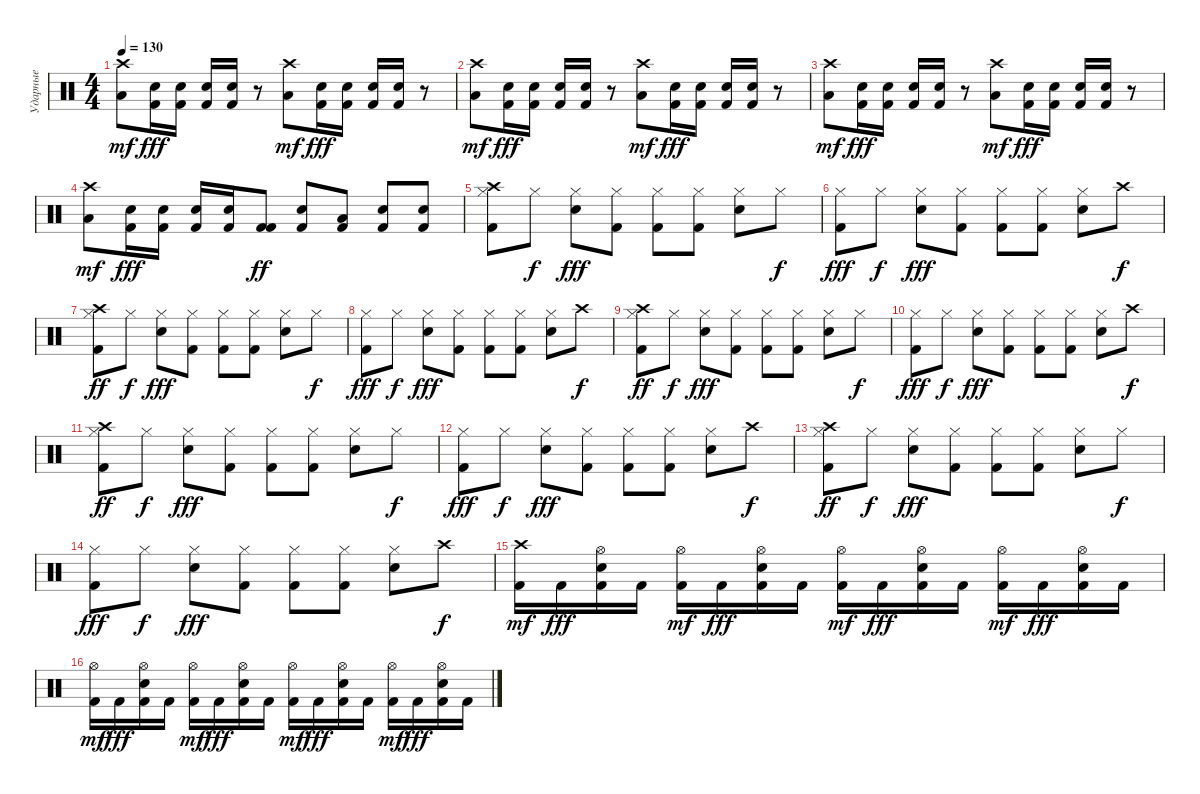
\track ("Ударные" "Ударные") {instrument percussion}
\staff {score}
\articulation defaults
\ts (4 4)
\tempo 130
\clef neutral
\ks c
("Low Floor Tom (hit)" "Crash high (hit)").8{dy mf} ("Kick (hit) 2" "Snare (hit) 2").16{dy fff} ("Kick (hit) 2" "Snare (hit) 2").16 ("Kick (hit) 2" "Snare (hit) 2").16 ("Kick (hit) 2" "Snare (hit) 2").16 r.8 ("Low Floor Tom (hit)" "Crash high (hit)").8{dy mf} ("Kick (hit) 2" "Snare (hit) 2").16{dy fff} ("Kick (hit) 2" "Snare (hit) 2").16 ("Kick (hit) 2" "Snare (hit) 2").16 ("Kick (hit) 2" "Snare (hit) 2").16 r.8 |
("Low Floor Tom (hit)" "Crash high (hit)").8{dy mf} ("Kick (hit) 2" "Snare (hit) 2").16{dy fff} ("Kick (hit) 2" "Snare (hit) 2").16 ("Kick (hit) 2" "Snare (hit) 2").16 ("Kick (hit) 2" "Snare (hit) 2").16 r.8 ("Low Floor Tom (hit)" "Crash high (hit)").8{dy mf} ("Kick (hit) 2" "Snare (hit) 2").16{dy fff} ("Kick (hit) 2" "Snare (hit) 2").16 ("Kick (hit) 2" "Snare (hit) 2").16 ("Kick (hit) 2" "Snare (hit) 2").16 r.8 |
("Low Floor Tom (hit)" "Crash high (hit)").8{dy mf} ("Kick (hit) 2" "Snare (hit) 2").16{dy fff} ("Kick (hit) 2" "Snare (hit) 2").16 ("Kick (hit) 2" "Snare (hit) 2").16 ("Kick (hit) 2" "Snare (hit) 2").16 r.8 ("Low Floor Tom (hit)" "Crash high (hit)").8{dy mf} ("Kick (hit) 2" "Snare (hit) 2").16{dy fff} ("Kick (hit) 2" "Snare (hit) 2").16 ("Kick (hit) 2" "Snare (hit) 2").16 ("Kick (hit) 2" "Snare (hit) 2").16 r.8 |
("Low Floor Tom (hit)" "Crash high (hit)").8{dy mf} ("Kick (hit) 2" "Snare (hit) 2").16{dy fff} ("Kick (hit) 2" "Snare (hit) 2").16 ("Kick (hit) 2" "Snare (hit) 2").16 ("Kick (hit) 2" "Snare (hit) 2").16 ("Kick (hit) 2" "Kick (hit) 2").8{dy ff} ("Snare (hit) 2" "Kick (hit) 2").8 ("Low Floor Tom (hit)" "Kick (hit) 2").8 ("Snare (hit) 2" "Kick (hit) 2").8 ("Snare (hit) 2" "Kick (hit) 2").8 |
("Hi-Hat (closed)" "Kick (hit) 2" "Crash high (hit)").8 "Hi-Hat (closed)".8{dy f} ("Hi-Hat (closed)" "Snare (hit) 2").8{dy fff} ("Hi-Hat (closed)" "Kick (hit) 2").8 ("Hi-Hat (closed)" "Kick (hit) 2").8 ("Hi-Hat (closed)" "Kick (hit) 2").8 ("Hi-Hat (closed)" "Snare (hit) 2").8 "Hi-Hat (closed)".8{dy f} |
("Hi-Hat (closed)" "Kick (hit) 2").8{dy fff} "Hi-Hat (closed)".8{dy f} ("Hi-Hat (closed)" "Snare (hit) 2").8{dy fff} ("Hi-Hat (closed)" "Kick (hit) 2").8 ("Hi-Hat (closed)" "Kick (hit) 2").8 ("Hi-Hat (closed)" "Kick (hit) 2").8 ("Hi-Hat (closed)" "Snare (hit) 2").8 "Crash high (hit)".8{dy f} |
("Hi-Hat (closed)" "Kick (hit) 2" "Crash high (hit)").8{dy ff} "Hi-Hat (closed)".8{dy f} ("Hi-Hat (closed)" "Snare (hit) 2").8{dy fff} ("Hi-Hat (closed)" "Kick (hit) 2").8 ("Hi-Hat (closed)" "Kick (hit) 2").8 ("Hi-Hat (closed)" "Kick (hit) 2").8 ("Hi-Hat (closed)" "Snare (hit) 2").8 "Hi-Hat (closed)".8{dy f} |
("Hi-Hat (closed)" "Kick (hit) 2").8{dy fff} "Hi-Hat (closed)".8{dy f} ("Hi-Hat (closed)" "Snare (hit) 2").8{dy fff} ("Hi-Hat (closed)" "Kick (hit) 2").8 ("Hi-Hat (closed)" "Kick (hit) 2").8 ("Hi-Hat (closed)" "Kick (hit) 2").8 ("Hi-Hat (closed)" "Snare (hit) 2").8 "Crash high (hit)".8{dy f} |
("Hi-Hat (closed)" "Kick (hit) 2" "Crash high (hit)").8{dy ff} "Hi-Hat (closed)".8{dy f} ("Hi-Hat (closed)" "Snare (hit) 2").8{dy fff} ("Hi-Hat (closed)" "Kick (hit) 2").8 ("Hi-Hat (closed)" "Kick (hit) 2").8 ("Hi-Hat (closed)" "Kick (hit) 2").8 ("Hi-Hat (closed)" "Snare (hit) 2").8 "Hi-Hat (closed)".8{dy f} |
("Hi-Hat (closed)" "Kick (hit) 2").8{dy fff} "Hi-Hat (closed)".8{dy f} ("Hi-Hat (closed)" "Snare (hit) 2").8{dy fff} ("Hi-Hat (closed)" "Kick (hit) 2").8 ("Hi-Hat (closed)" "Kick (hit) 2").8 ("Hi-Hat (closed)" "Kick (hit) 2").8 ("Hi-Hat (closed)" "Snare (hit) 2").8 "Crash high (hit)".8{dy f} |
("Hi-Hat (closed)" "Kick (hit) 2" "Crash high (hit)").8{dy ff} "Hi-Hat (closed)".8{dy f} ("Hi-Hat (closed)" "Snare (hit) 2").8{dy fff} ("Hi-Hat (closed)" "Kick (hit) 2").8 ("Hi-Hat (closed)" "Kick (hit) 2").8 ("Hi-Hat (closed)" "Kick (hit) 2").8 ("Hi-Hat (closed)" "Snare (hit) 2").8 "Hi-Hat (closed)".8{dy f} |
("Hi-Hat (closed)" "Kick (hit) 2").8{dy fff} "Hi-Hat (closed)".8{dy f} ("Hi-Hat (closed)" "Snare (hit) 2").8{dy fff} ("Hi-Hat (closed)" "Kick (hit) 2").8 ("Hi-Hat (closed)" "Kick (hit) 2").8 ("Hi-Hat (closed)" "Kick (hit) 2").8 ("Hi-Hat (closed)" "Snare (hit) 2").8 "Crash high (hit)".8{dy f} |
("Hi-Hat (closed)" "Kick (hit) 2" "Crash high (hit)").8{dy ff} "Hi-Hat (closed)".8{dy f} ("Hi-Hat (closed)" "Snare (hit) 2").8{dy fff} ("Hi-Hat (closed)" "Kick (hit) 2").8 ("Hi-Hat (closed)" "Kick (hit) 2").8 ("Hi-Hat (closed)" "Kick (hit) 2").8 ("Hi-Hat (closed)" "Snare (hit) 2").8 "Hi-Hat (closed)".8{dy f} |
("Hi-Hat (closed)" "Kick (hit) 2").8{dy fff} "Hi-Hat (closed)".8{dy f} ("Hi-Hat (closed)" "Snare (hit) 2").8{dy fff} ("Hi-Hat (closed)" "Kick (hit) 2").8 ("Hi-Hat (closed)" "Kick (hit) 2").8 ("Hi-Hat (closed)" "Kick (hit) 2").8 ("Hi-Hat (closed)" "Snare (hit) 2").8 "Crash high (hit)".8{dy f} |
("Kick (hit) 2" "Crash high (hit)").16{dy mf} "Kick (hit) 2".16{dy fff} ("Kick (hit) 2" "Hi-Hat (open)" "Snare (hit) 2").16 "Kick (hit) 2".16 ("Kick (hit) 2" "Hi-Hat (open)").16{dy mf} "Kick (hit) 2".16{dy fff} ("Kick (hit) 2" "Hi-Hat (open)" "Snare (hit) 2").16 "Kick (hit) 2".16 ("Kick (hit) 2" "Hi-Hat (open)").16{dy mf} "Kick (hit) 2".16{dy fff} ("Kick (hit) 2" "Hi-Hat (open)" "Snare (hit) 2").16 "Kick (hit) 2".16 ("Kick (hit) 2" "Hi-Hat (open)").16{dy mf} "Kick (hit) 2".16{dy fff} ("Kick (hit) 2" "Hi-Hat (open)" "Snare (hit) 2").16 "Kick (hit) 2".16 |
("Kick (hit) 2" "Hi-Hat (open)").16{dy mf} "Kick (hit) 2".16{dy fff} ("Kick (hit) 2" "Hi-Hat (open)" "Snare (hit) 2").16 "Kick (hit) 2".16 ("Kick (hit) 2" "Hi-Hat (open)").16{dy mf} "Kick (hit) 2".16{dy fff} ("Kick (hit) 2" "Hi-Hat (open)" "Snare (hit) 2").16 "Kick (hit) 2".16 ("Kick (hit) 2" "Hi-Hat (open)").16{dy mf} "Kick (hit) 2".16{dy fff} ("Kick (hit) 2" "Hi-Hat (open)" "Snare (hit) 2").16 "Kick (hit) 2".16 ("Kick (hit) 2" "Hi-Hat (open)").16{dy mf} "Kick (hit) 2".16{dy fff} ("Kick (hit) 2" "Hi-Hat (open)" "Snare (hit) 2").16 "Kick (hit) 2".16
